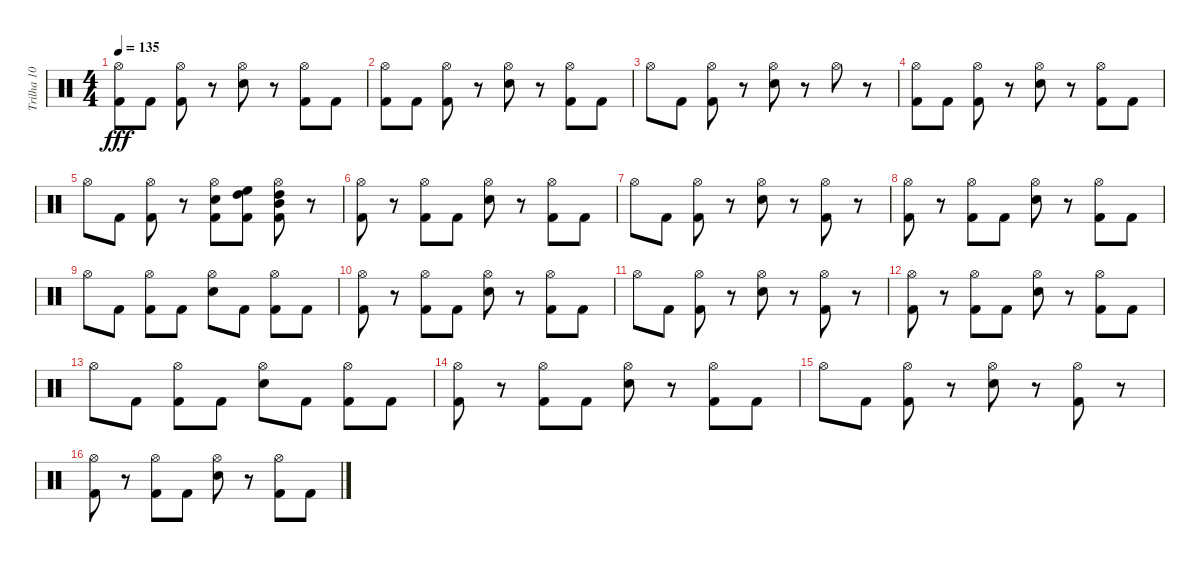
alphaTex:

\track ("Trilha 10" "Trilha 10") {instrument percussion}
\staff {score}
\articulation defaults
\ts (4 4)
\tempo 135
\clef neutral
\ks c
("Hi-Hat (open)" "Kick (hit) 2").8{dy fff} "Kick (hit) 2".8 ("Kick (hit) 2" "Hi-Hat (open)").8 r.8 ("Electric Snare (hit)" "Hi-Hat (open)").8 r.8 ("Hi-Hat (open)" "Kick (hit) 2").8 "Kick (hit) 2".8 |
("Hi-Hat (open)" "Kick (hit) 2").8 "Kick (hit) 2".8 ("Hi-Hat (open)" "Kick (hit) 2").8 r.8 ("Hi-Hat (open)" "Electric Snare (hit)").8 r.8 ("Hi-Hat (open)" "Kick (hit) 2").8 "Kick (hit) 2".8 |
"Hi-Hat (open)".8 "Kick (hit) 2".8 ("Hi-Hat (open)" "Kick (hit) 2").8 r.8 ("Hi-Hat (open)" "Electric Snare (hit)").8 r.8 "Hi-Hat (open)".8 r.8 |
("Hi-Hat (open)" "Kick (hit) 2").8 "Kick (hit) 2".8 ("Hi-Hat (open)" "Kick (hit) 2").8 r.8 ("Hi-Hat (open)" "Electric Snare (hit)").8 r.8 ("Hi-Hat (open)" "Kick (hit) 2").8 "Kick (hit) 2".8 |
"Hi-Hat (open)".8 "Kick (hit) 2".8 ("Hi-Hat (open)" "Kick (hit) 2").8 r.8 ("Kick (hit) 2" "Hi-Hat (open)" "Electric Snare (hit)").8 ("High Floor Tom (hit)" "Kick (hit) 2" "High Tom (hit)").8 ("High Tom (hit)" "Kick (hit) 2" "Mid Tom (hit)" "Hi-Hat (open)").8 r.8 |
("Hi-Hat (open)" "Kick (hit) 2").8 r.8 ("Hi-Hat (open)" "Kick (hit) 2").8 "Kick (hit) 2".8 ("Hi-Hat (open)" "Electric Snare (hit)").8 r.8 ("Hi-Hat (open)" "Kick (hit) 2").8 "Kick (hit) 2".8 |
"Hi-Hat (open)".8 "Kick (hit) 2".8 ("Hi-Hat (open)" "Kick (hit) 2").8 r.8 ("Hi-Hat (open)" "Electric Snare (hit)").8 r.8 ("Hi-Hat (open)" "Kick (hit) 2").8 r.8 |
("Hi-Hat (open)" "Kick (hit) 2").8 r.8 ("Hi-Hat (open)" "Kick (hit) 2").8 "Kick (hit) 2".8 ("Hi-Hat (open)" "Electric Snare (hit)").8 r.8 ("Hi-Hat (open)" "Kick (hit) 2").8 "Kick (hit) 2".8 |
"Hi-Hat (open)".8 "Kick (hit) 2".8 ("Hi-Hat (open)" "Kick (hit) 2").8 "Kick (hit) 2".8 ("Hi-Hat (open)" "Electric Snare (hit)").8 "Kick (hit) 2".8 ("Hi-Hat (open)" "Kick (hit) 2").8 "Kick (hit) 2".8 |
("Hi-Hat (open)" "Kick (hit) 2").8 r.8 ("Hi-Hat (open)" "Kick (hit) 2").8 "Kick (hit) 2".8 ("Hi-Hat (open)" "Electric Snare (hit)").8 r.8 ("Hi-Hat (open)" "Kick (hit) 2").8 "Kick (hit) 2".8 |
"Hi-Hat (open)".8 "Kick (hit) 2".8 ("Hi-Hat (open)" "Kick (hit) 2").8 r.8 ("Hi-Hat (open)" "Electric Snare (hit)").8 r.8 ("Hi-Hat (open)" "Kick (hit) 2").8 r.8 |
("Hi-Hat (open)" "Kick (hit) 2").8 r.8 ("Hi-Hat (open)" "Kick (hit) 2").8 "Kick (hit) 2".8 ("Electric Snare (hit)" "Hi-Hat (open)").8 r.8 ("Kick (hit) 2" "Hi-Hat (open)").8 "Kick (hit) 2".8 |
"Hi-Hat (open)".8 "Kick (hit) 2".8 ("Hi-Hat (open)" "Kick (hit) 2").8 "Kick (hit) 2".8 ("Hi-Hat (open)" "Electric Snare (hit)").8 "Kick (hit) 2".8 ("Hi-Hat (open)" "Kick (hit) 2").8 "Kick (hit) 2".8 |
("Hi-Hat (open)" "Kick (hit) 2").8 r.8 ("Hi-Hat (open)" "Kick (hit) 2").8 "Kick (hit) 2".8 ("Hi-Hat (open)" "Electric Snare (hit)").8 r.8 ("Hi-Hat (open)" "Kick (hit) 2").8 "Kick (hit) 2".8 |
"Hi-Hat (open)".8 "Kick (hit) 2".8 ("Hi-Hat (open)" "Kick (hit) 2").8 r.8 ("Hi-Hat (open)" "Electric Snare (hit)").8 r.8 ("Hi-Hat (open)" "Kick (hit) 2").8 r.8 |
("Hi-Hat (open)" "Kick (hit) 2").8 r.8 ("Hi-Hat (open)" "Kick (hit) 2").8 "Kick (hit) 2".8 ("Hi-Hat (open)" "Electric Snare (hit)").8 r.8 ("Hi-Hat (open)" "Kick (hit) 2").8 "Kick (hit) 2".8
